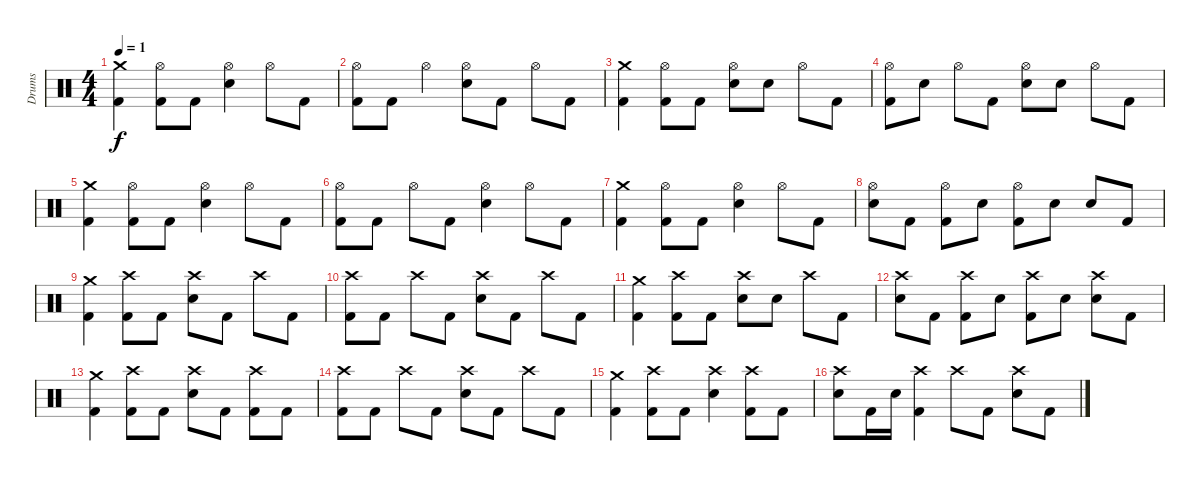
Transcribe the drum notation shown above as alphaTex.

\track ("Drums" "Drums") {instrument percussion}
\staff {score}
\articulation defaults
\ts (4 4)
\tempo 1
\clef neutral
\ks c
("Kick (hit) 2" "Crash medium (hit)").4{dy f} ("Hi-Hat (open)" "Kick (hit) 2").8 "Kick (hit) 2".8 ("Snare (hit) 2" "Hi-Hat (open)").4 "Hi-Hat (open)".8 "Kick (hit) 2".8 |
("Kick (hit) 2" "Hi-Hat (open)").8 "Kick (hit) 2".8 "Hi-Hat (open)".4 ("Snare (hit) 2" "Hi-Hat (open)").8 "Kick (hit) 2".8 "Hi-Hat (open)".8 "Kick (hit) 2".8 |
("Kick (hit) 2" "Crash medium (hit)").4 ("Hi-Hat (open)" "Kick (hit) 2").8 "Kick (hit) 2".8 ("Snare (hit) 2" "Hi-Hat (open)").8 "Snare (hit) 2".8 "Hi-Hat (open)".8 "Kick (hit) 2".8 |
("Hi-Hat (open)" "Kick (hit) 2").8 "Snare (hit) 2".8 "Hi-Hat (open)".8 "Kick (hit) 2".8 ("Snare (hit) 2" "Hi-Hat (open)").8 "Snare (hit) 2".8 "Hi-Hat (open)".8 "Kick (hit) 2".8 |
("Kick (hit) 2" "Crash medium (hit)").4 ("Hi-Hat (open)" "Kick (hit) 2").8 "Kick (hit) 2".8 ("Snare (hit) 2" "Hi-Hat (open)").4 "Hi-Hat (open)".8 "Kick (hit) 2".8 |
("Kick (hit) 2" "Hi-Hat (open)").8 "Kick (hit) 2".8 "Hi-Hat (open)".8 "Kick (hit) 2".8 ("Snare (hit) 2" "Hi-Hat (open)").4 "Hi-Hat (open)".8 "Kick (hit) 2".8 |
("Kick (hit) 2" "Crash medium (hit)").4 ("Hi-Hat (open)" "Kick (hit) 2").8 "Kick (hit) 2".8 ("Snare (hit) 2" "Hi-Hat (open)").4 "Hi-Hat (open)".8 "Kick (hit) 2".8 |
("Snare (hit) 2" "Hi-Hat (open)").8 "Kick (hit) 2".8 ("Kick (hit) 2" "Hi-Hat (open)").8 "Snare (hit) 2".8 ("Kick (hit) 2" "Hi-Hat (open)").8 "Snare (hit) 2".8 "Snare (hit) 2".8 "Kick (hit) 2".8 |
("Kick (hit) 2" "Crash medium (hit)").4 ("Crash high (hit)" "Kick (hit) 2").8 "Kick (hit) 2".8 ("Snare (hit) 2" "Crash high (hit)").8 "Kick (hit) 2".8 "Crash high (hit)".8 "Kick (hit) 2".8 |
("Crash high (hit)" "Kick (hit) 2").8 "Kick (hit) 2".8 "Crash high (hit)".8 "Kick (hit) 2".8 ("Snare (hit) 2" "Crash high (hit)").8 "Kick (hit) 2".8 "Crash high (hit)".8 "Kick (hit) 2".8 |
("Kick (hit) 2" "Crash medium (hit)").4 ("Crash high (hit)" "Kick (hit) 2").8 "Kick (hit) 2".8 ("Snare (hit) 2" "Crash high (hit)").8 "Snare (hit) 2".8 "Crash high (hit)".8 "Kick (hit) 2".8 |
("Crash high (hit)" "Snare (hit) 2").8 "Kick (hit) 2".8 ("Crash high (hit)" "Kick (hit) 2").8 "Snare (hit) 2".8 ("Crash high (hit)" "Kick (hit) 2").8 "Snare (hit) 2".8 ("Crash high (hit)" "Snare (hit) 2").8 "Kick (hit) 2".8 |
("Kick (hit) 2" "Crash medium (hit)").4 ("Crash high (hit)" "Kick (hit) 2").8 "Kick (hit) 2".8 ("Snare (hit) 2" "Crash high (hit)").8 "Kick (hit) 2".8 ("Crash high (hit)" "Kick (hit) 2").8 "Kick (hit) 2".8 |
("Crash high (hit)" "Kick (hit) 2").8 "Kick (hit) 2".8 "Crash high (hit)".8 "Kick (hit) 2".8 ("Snare (hit) 2" "Crash high (hit)").8 "Kick (hit) 2".8 "Crash high (hit)".8 "Kick (hit) 2".8 |
("Kick (hit) 2" "Crash medium (hit)").4 ("Crash high (hit)" "Kick (hit) 2").8 "Kick (hit) 2".8 ("Snare (hit) 2" "Crash high (hit)").4 ("Crash high (hit)" "Kick (hit) 2").8 "Kick (hit) 2".8 |
("Crash high (hit)" "Snare (hit) 2").8 "Kick (hit) 2".16 "Snare (hit) 2".16 ("Crash high (hit)" "Kick (hit) 2").4 "Crash high (hit)".8 "Kick (hit) 2".8 ("Crash high (hit)" "Snare (hit) 2").8 "Kick (hit) 2".8
